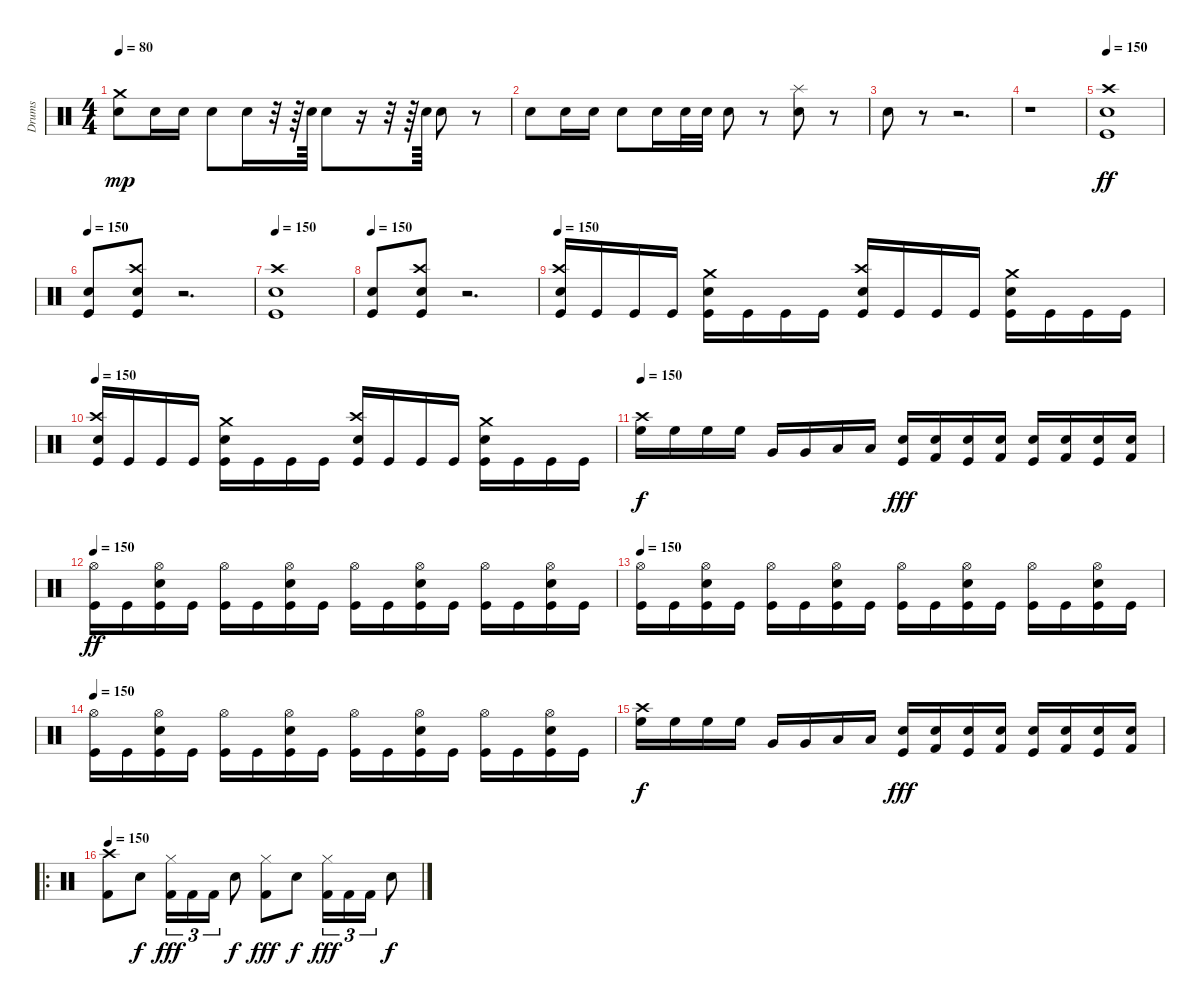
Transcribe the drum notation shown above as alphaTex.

\track ("Drums" "Drums") {instrument percussion}
\staff {score}
\articulation defaults
\ts (4 4)
\tempo 80
\clef neutral
\ks c
("Crash medium (hit)" "Snare (hit) 2").8{dy mp} "Snare (hit) 2".16 "Snare (hit) 2".16 "Snare (hit) 2".8 "Snare (hit) 2".16 r.32 r.64 "Snare (hit) 2".64 "Snare (hit) 2".8 r.16 r.32 r.64 "Snare (hit) 2".64 "Snare (hit) 2".8 r.8 |
"Snare (hit) 2".8 "Snare (hit) 2".16 "Snare (hit) 2".16 "Snare (hit) 2".8 "Snare (hit) 2".16 "Snare (hit) 2".32 "Snare (hit) 2".32 "Snare (hit) 2".8 r.8 ("Splash (hit)" "Snare (hit) 2").8 r.8 |
"Snare (hit) 2".8 r.8 r.2{d} |
r.1 |
\tempo 150
("Crash high (hit)" "Snare (hit) 2" "Kick (hit)").1{dy ff} |
\tempo 150
("Snare (hit) 2" "Kick (hit)").8 ("Crash high (hit)" "Snare (hit) 2" "Kick (hit)").8 r.2{d} |
\tempo 150
("Crash high (hit)" "Snare (hit) 2" "Kick (hit)").1 |
\tempo 150
("Snare (hit) 2" "Kick (hit)").8 ("Crash high (hit)" "Snare (hit) 2" "Kick (hit)").8 r.2{d} |
\tempo 150
("Crash high (hit)" "Snare (hit) 2" "Kick (hit)").16 "Kick (hit)".16 "Kick (hit)".16 "Kick (hit)".16 ("Crash medium (hit)" "Snare (hit) 2" "Kick (hit)").16 "Kick (hit)".16 "Kick (hit)".16 "Kick (hit)".16 ("Crash high (hit)" "Snare (hit) 2" "Kick (hit)").16 "Kick (hit)".16 "Kick (hit)".16 "Kick (hit)".16 ("Crash medium (hit)" "Snare (hit) 2" "Kick (hit)").16 "Kick (hit)".16 "Kick (hit)".16 "Kick (hit)".16 |
\tempo 150
("Crash high (hit)" "Snare (hit) 2" "Kick (hit)").16 "Kick (hit)".16 "Kick (hit)".16 "Kick (hit)".16 ("Crash medium (hit)" "Snare (hit) 2" "Kick (hit)").16 "Kick (hit)".16 "Kick (hit)".16 "Kick (hit)".16 ("Crash high (hit)" "Snare (hit) 2" "Kick (hit)").16 "Kick (hit)".16 "Kick (hit)".16 "Kick (hit)".16 ("Crash medium (hit)" "Snare (hit) 2" "Kick (hit)").16 "Kick (hit)".16 "Kick (hit)".16 "Kick (hit)".16 |
\tempo 150
("Crash high (hit)" "High Floor Tom (hit)").16{dy f} "High Floor Tom (hit)".16 "High Floor Tom (hit)".16 "High Floor Tom (hit)".16 "Very Low Tom (hit)".16 "Very Low Tom (hit)".16 "Low Tom (hit)".16 "Low Tom (hit)".16 ("Snare (hit) 2" "Kick (hit)").16{dy fff} ("Snare (hit) 2" "Kick (hit) 2").16 ("Snare (hit) 2" "Kick (hit)").16 ("Snare (hit) 2" "Kick (hit) 2").16 ("Snare (hit) 2" "Kick (hit)").16 ("Snare (hit) 2" "Kick (hit) 2").16 ("Snare (hit) 2" "Kick (hit)").16 ("Snare (hit) 2" "Kick (hit) 2").16 |
\tempo 150
("Hi-Hat (open)" "Kick (hit)").16{dy ff} "Kick (hit)".16 ("Hi-Hat (open)" "Snare (hit) 2" "Kick (hit)").16 "Kick (hit)".16 ("Hi-Hat (open)" "Kick (hit)").16 "Kick (hit)".16 ("Hi-Hat (open)" "Snare (hit) 2" "Kick (hit)").16 "Kick (hit)".16 ("Hi-Hat (open)" "Kick (hit)").16 "Kick (hit)".16 ("Hi-Hat (open)" "Snare (hit) 2" "Kick (hit)").16 "Kick (hit)".16 ("Hi-Hat (open)" "Kick (hit)").16 "Kick (hit)".16 ("Hi-Hat (open)" "Snare (hit) 2" "Kick (hit)").16 "Kick (hit)".16 |
\tempo 150
("Hi-Hat (open)" "Kick (hit)").16 "Kick (hit)".16 ("Hi-Hat (open)" "Snare (hit) 2" "Kick (hit)").16 "Kick (hit)".16 ("Hi-Hat (open)" "Kick (hit)").16 "Kick (hit)".16 ("Hi-Hat (open)" "Snare (hit) 2" "Kick (hit)").16 "Kick (hit)".16 ("Hi-Hat (open)" "Kick (hit)").16 "Kick (hit)".16 ("Hi-Hat (open)" "Snare (hit) 2" "Kick (hit)").16 "Kick (hit)".16 ("Hi-Hat (open)" "Kick (hit)").16 "Kick (hit)".16 ("Hi-Hat (open)" "Snare (hit) 2" "Kick (hit)").16 "Kick (hit)".16 |
\tempo 150
("Hi-Hat (open)" "Kick (hit)").16 "Kick (hit)".16 ("Hi-Hat (open)" "Snare (hit) 2" "Kick (hit)").16 "Kick (hit)".16 ("Hi-Hat (open)" "Kick (hit)").16 "Kick (hit)".16 ("Hi-Hat (open)" "Snare (hit) 2" "Kick (hit)").16 "Kick (hit)".16 ("Hi-Hat (open)" "Kick (hit)").16 "Kick (hit)".16 ("Hi-Hat (open)" "Snare (hit) 2" "Kick (hit)").16 "Kick (hit)".16 ("Hi-Hat (open)" "Kick (hit)").16 "Kick (hit)".16 ("Hi-Hat (open)" "Snare (hit) 2" "Kick (hit)").16 "Kick (hit)".16 |
("Crash high (hit)" "High Floor Tom (hit)").16{dy f} "High Floor Tom (hit)".16 "High Floor Tom (hit)".16 "High Floor Tom (hit)".16 "Very Low Tom (hit)".16 "Very Low Tom (hit)".16 "Low Tom (hit)".16 "Low Tom (hit)".16 ("Snare (hit) 2" "Kick (hit)").16{dy fff} ("Snare (hit) 2" "Kick (hit) 2").16 ("Snare (hit) 2" "Kick (hit)").16 ("Snare (hit) 2" "Kick (hit) 2").16 ("Snare (hit) 2" "Kick (hit)").16 ("Snare (hit) 2" "Kick (hit) 2").16 ("Snare (hit) 2" "Kick (hit)").16 ("Snare (hit) 2" "Kick (hit) 2").16 |
\ro
\tempo 150
("Crash high (hit)" "Kick (hit) 2").8 "Snare (hit) 2".8{dy f} ("Hi-Hat (closed)" "Kick (hit) 2").16{tu (3 2) dy fff} "Kick (hit) 2".16{tu (3 2)} "Kick (hit) 2".16{tu (3 2)} "Snare (hit) 2".8{dy f} ("Hi-Hat (closed)" "Kick (hit) 2").8{dy fff} "Snare (hit) 2".8{dy f} ("Hi-Hat (closed)" "Kick (hit) 2").16{tu (3 2) dy fff} "Kick (hit) 2".16{tu (3 2)} "Kick (hit) 2".16{tu (3 2)} "Snare (hit) 2".8{dy f}
